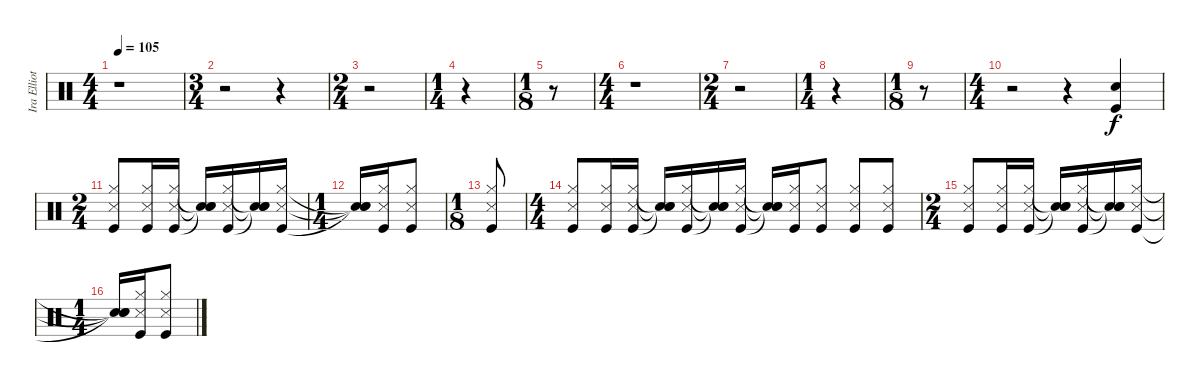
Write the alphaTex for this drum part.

\track ("Ira Elliot" "Ira Elliot") {instrument percussion}
\staff {score}
\articulation defaults
\ts (4 4)
\tempo 105
\clef neutral
\ks c
r.1{dy f} |
\ts (3 4)
r.2 r.4 |
\ts (2 4)
r.2 |
\ts (1 4)
r.4 |
\ts (1 8)
r.8 |
\ts (4 4)
r.1 |
\ts (2 4)
r.2 |
\ts (1 4)
r.4 |
\ts (1 8)
r.8 |
\ts (4 4)
r.2 r.4 ("Snare (hit) 2" "Kick (hit)").4 |
\ts (2 4)
("Hi-Hat (closed)" "Snare (side stick) 3" "Kick (hit)").8 ("Hi-Hat (closed)" "Snare (side stick) 3" "Kick (hit)").16 ("Hi-Hat (closed)" "Snare (side stick) 3" "Kick (hit)").16 ("Snare (hit)"{t} "Snare (hit)"{t} "Snare (hit)"{t}).16 ("Hi-Hat (closed)" "Snare (side stick) 3" "Kick (hit)").16 ("Snare (hit)"{t} "Snare (hit)"{t} "Snare (hit)"{t}).16 ("Hi-Hat (closed)" "Snare (side stick) 3" "Kick (hit)").16 |
\ts (1 4)
("Snare (hit)"{t} "Snare (hit)"{t} "Snare (hit)"{t}).16 ("Hi-Hat (closed)" "Snare (side stick) 3" "Kick (hit)").16 ("Hi-Hat (closed)" "Snare (side stick) 3" "Kick (hit)").8 |
\ts (1 8)
("Hi-Hat (closed)" "Snare (side stick) 3" "Kick (hit)").8 |
\ts (4 4)
("Hi-Hat (closed)" "Snare (side stick) 3" "Kick (hit)").8 ("Hi-Hat (closed)" "Snare (side stick) 3" "Kick (hit)").16 ("Hi-Hat (closed)" "Snare (side stick) 3" "Kick (hit)").16 ("Snare (hit)"{t} "Snare (hit)"{t} "Snare (hit)"{t}).16 ("Hi-Hat (closed)" "Snare (side stick) 3" "Kick (hit)").16 ("Snare (hit)"{t} "Snare (hit)"{t} "Snare (hit)"{t}).16 ("Hi-Hat (closed)" "Snare (side stick) 3" "Kick (hit)").16 ("Snare (hit)"{t} "Snare (hit)"{t} "Snare (hit)"{t}).16 ("Hi-Hat (closed)" "Snare (side stick) 3" "Kick (hit)").16 ("Hi-Hat (closed)" "Snare (side stick) 3" "Kick (hit)").8 ("Hi-Hat (closed)" "Snare (side stick) 3" "Kick (hit)").8 ("Hi-Hat (closed)" "Snare (side stick) 3" "Kick (hit)").8 |
\ts (2 4)
("Hi-Hat (closed)" "Snare (side stick) 3" "Kick (hit)").8 ("Hi-Hat (closed)" "Snare (side stick) 3" "Kick (hit)").16 ("Hi-Hat (closed)" "Snare (side stick) 3" "Kick (hit)").16 ("Snare (hit)"{t} "Snare (hit)"{t} "Snare (hit)"{t}).16 ("Hi-Hat (closed)" "Snare (side stick) 3" "Kick (hit)").16 ("Snare (hit)"{t} "Snare (hit)"{t} "Snare (hit)"{t}).16 ("Hi-Hat (closed)" "Snare (side stick) 3" "Kick (hit)").16 |
\ts (1 4)
("Snare (hit)"{t} "Snare (hit)"{t} "Snare (hit)"{t}).16 ("Hi-Hat (closed)" "Snare (side stick) 3" "Kick (hit)").16 ("Hi-Hat (closed)" "Snare (side stick) 3" "Kick (hit)").8
